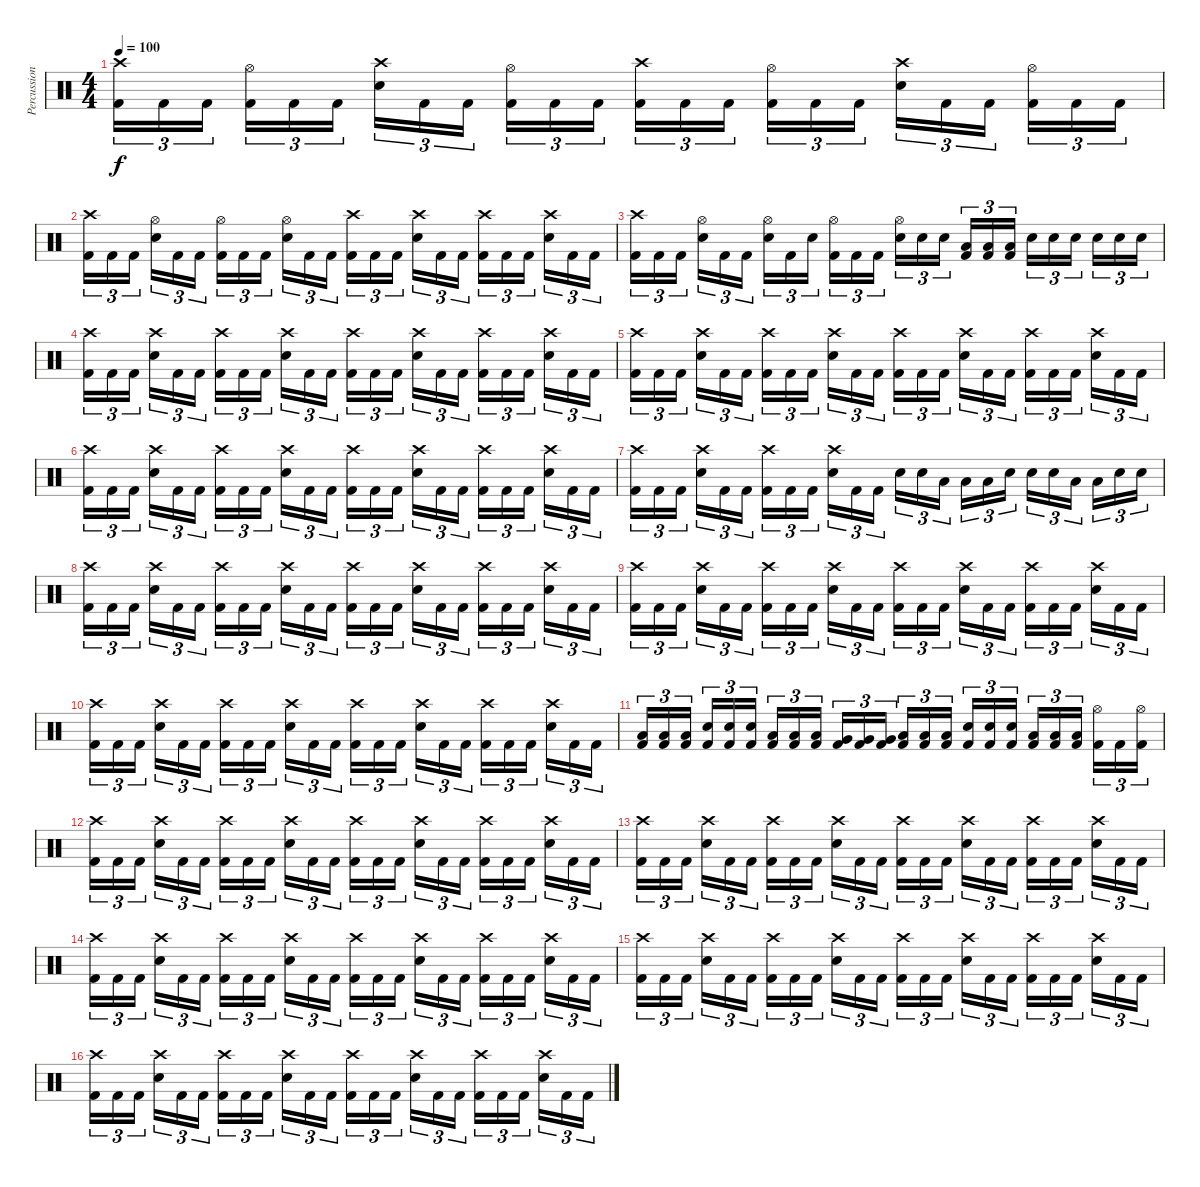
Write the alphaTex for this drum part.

\track ("Percussion" "Percussion") {instrument percussion}
\staff {score}
\articulation defaults
\ts (4 4)
\tempo 100
\clef neutral
\ks c
("Crash high (hit)" "Kick (hit) 2").16{tu (3 2) dy f} "Kick (hit) 2".16{tu (3 2)} "Kick (hit) 2".16{tu (3 2)} ("Hi-Hat (open)" "Kick (hit) 2").16{tu (3 2)} "Kick (hit) 2".16{tu (3 2)} "Kick (hit) 2".16{tu (3 2)} ("Crash high (hit)" "Electric Snare (hit)").16{tu (3 2)} "Kick (hit) 2".16{tu (3 2)} "Kick (hit) 2".16{tu (3 2)} ("Hi-Hat (open)" "Kick (hit) 2").16{tu (3 2)} "Kick (hit) 2".16{tu (3 2)} "Kick (hit) 2".16{tu (3 2)} ("Crash high (hit)" "Kick (hit) 2").16{tu (3 2)} "Kick (hit) 2".16{tu (3 2)} "Kick (hit) 2".16{tu (3 2)} ("Hi-Hat (open)" "Kick (hit) 2").16{tu (3 2)} "Kick (hit) 2".16{tu (3 2)} "Kick (hit) 2".16{tu (3 2)} ("Crash high (hit)" "Electric Snare (hit)").16{tu (3 2)} "Kick (hit) 2".16{tu (3 2)} "Kick (hit) 2".16{tu (3 2)} ("Hi-Hat (open)" "Kick (hit) 2").16{tu (3 2)} "Kick (hit) 2".16{tu (3 2)} "Kick (hit) 2".16{tu (3 2)} |
("Crash high (hit)" "Kick (hit) 2").16{tu (3 2)} "Kick (hit) 2".16{tu (3 2)} "Kick (hit) 2".16{tu (3 2)} ("Hi-Hat (open)" "Electric Snare (hit)").16{tu (3 2)} "Kick (hit) 2".16{tu (3 2)} "Kick (hit) 2".16{tu (3 2)} ("Hi-Hat (open)" "Kick (hit) 2").16{tu (3 2)} "Kick (hit) 2".16{tu (3 2)} "Kick (hit) 2".16{tu (3 2)} ("Hi-Hat (open)" "Electric Snare (hit)").16{tu (3 2)} "Kick (hit) 2".16{tu (3 2)} "Kick (hit) 2".16{tu (3 2)} ("Crash high (hit)" "Kick (hit) 2").16{tu (3 2)} "Kick (hit) 2".16{tu (3 2)} "Kick (hit) 2".16{tu (3 2)} ("Crash high (hit)" "Electric Snare (hit)").16{tu (3 2)} "Kick (hit) 2".16{tu (3 2)} "Kick (hit) 2".16{tu (3 2)} ("Crash high (hit)" "Kick (hit) 2").16{tu (3 2)} "Kick (hit) 2".16{tu (3 2)} "Kick (hit) 2".16{tu (3 2)} ("Crash high (hit)" "Electric Snare (hit)").16{tu (3 2)} "Kick (hit) 2".16{tu (3 2)} "Kick (hit) 2".16{tu (3 2)} |
("Crash high (hit)" "Kick (hit) 2").16{tu (3 2)} "Kick (hit) 2".16{tu (3 2)} "Kick (hit) 2".16{tu (3 2)} ("Hi-Hat (open)" "Electric Snare (hit)").16{tu (3 2)} "Kick (hit) 2".16{tu (3 2)} "Kick (hit) 2".16{tu (3 2)} ("Hi-Hat (open)" "Electric Snare (hit)").16{tu (3 2)} "Kick (hit) 2".16{tu (3 2)} "Electric Snare (hit)".16{tu (3 2)} ("Hi-Hat (open)" "Kick (hit) 2").16{tu (3 2)} "Kick (hit) 2".16{tu (3 2)} "Kick (hit) 2".16{tu (3 2)} ("Hi-Hat (open)" "Electric Snare (hit)").16{tu (3 2)} "Electric Snare (hit)".16{tu (3 2)} "Electric Snare (hit)".16{tu (3 2)} ("Low Tom (hit)" "Kick (hit) 2").16{tu (3 2)} ("Low Tom (hit)" "Kick (hit) 2").16{tu (3 2)} ("Low Tom (hit)" "Kick (hit) 2").16{tu (3 2)} "Electric Snare (hit)".16{tu (3 2)} "Electric Snare (hit)".16{tu (3 2)} "Electric Snare (hit)".16{tu (3 2)} "Electric Snare (hit)".16{tu (3 2)} "Electric Snare (hit)".16{tu (3 2)} "Electric Snare (hit)".16{tu (3 2)} |
("Crash high (hit)" "Kick (hit) 2").16{tu (3 2)} "Kick (hit) 2".16{tu (3 2)} "Kick (hit) 2".16{tu (3 2)} ("Crash high (hit)" "Electric Snare (hit)").16{tu (3 2)} "Kick (hit) 2".16{tu (3 2)} "Kick (hit) 2".16{tu (3 2)} ("Crash high (hit)" "Kick (hit) 2").16{tu (3 2)} "Kick (hit) 2".16{tu (3 2)} "Kick (hit) 2".16{tu (3 2)} ("Crash high (hit)" "Electric Snare (hit)").16{tu (3 2)} "Kick (hit) 2".16{tu (3 2)} "Kick (hit) 2".16{tu (3 2)} ("Crash high (hit)" "Kick (hit) 2").16{tu (3 2)} "Kick (hit) 2".16{tu (3 2)} "Kick (hit) 2".16{tu (3 2)} ("Crash high (hit)" "Electric Snare (hit)").16{tu (3 2)} "Kick (hit) 2".16{tu (3 2)} "Kick (hit) 2".16{tu (3 2)} ("Crash high (hit)" "Kick (hit) 2").16{tu (3 2)} "Kick (hit) 2".16{tu (3 2)} "Kick (hit) 2".16{tu (3 2)} ("Crash high (hit)" "Electric Snare (hit)").16{tu (3 2)} "Kick (hit) 2".16{tu (3 2)} "Kick (hit) 2".16{tu (3 2)} |
("Crash high (hit)" "Kick (hit) 2").16{tu (3 2)} "Kick (hit) 2".16{tu (3 2)} "Kick (hit) 2".16{tu (3 2)} ("Crash high (hit)" "Electric Snare (hit)").16{tu (3 2)} "Kick (hit) 2".16{tu (3 2)} "Kick (hit) 2".16{tu (3 2)} ("Crash high (hit)" "Kick (hit) 2").16{tu (3 2)} "Kick (hit) 2".16{tu (3 2)} "Kick (hit) 2".16{tu (3 2)} ("Crash high (hit)" "Electric Snare (hit)").16{tu (3 2)} "Kick (hit) 2".16{tu (3 2)} "Kick (hit) 2".16{tu (3 2)} ("Crash high (hit)" "Kick (hit) 2").16{tu (3 2)} "Kick (hit) 2".16{tu (3 2)} "Kick (hit) 2".16{tu (3 2)} ("Crash high (hit)" "Electric Snare (hit)").16{tu (3 2)} "Kick (hit) 2".16{tu (3 2)} "Kick (hit) 2".16{tu (3 2)} ("Crash high (hit)" "Kick (hit) 2").16{tu (3 2)} "Kick (hit) 2".16{tu (3 2)} "Kick (hit) 2".16{tu (3 2)} ("Crash high (hit)" "Electric Snare (hit)").16{tu (3 2)} "Kick (hit) 2".16{tu (3 2)} "Kick (hit) 2".16{tu (3 2)} |
("Crash high (hit)" "Kick (hit) 2").16{tu (3 2)} "Kick (hit) 2".16{tu (3 2)} "Kick (hit) 2".16{tu (3 2)} ("Crash high (hit)" "Electric Snare (hit)").16{tu (3 2)} "Kick (hit) 2".16{tu (3 2)} "Kick (hit) 2".16{tu (3 2)} ("Crash high (hit)" "Kick (hit) 2").16{tu (3 2)} "Kick (hit) 2".16{tu (3 2)} "Kick (hit) 2".16{tu (3 2)} ("Crash high (hit)" "Electric Snare (hit)").16{tu (3 2)} "Kick (hit) 2".16{tu (3 2)} "Kick (hit) 2".16{tu (3 2)} ("Crash high (hit)" "Kick (hit) 2").16{tu (3 2)} "Kick (hit) 2".16{tu (3 2)} "Kick (hit) 2".16{tu (3 2)} ("Crash high (hit)" "Electric Snare (hit)").16{tu (3 2)} "Kick (hit) 2".16{tu (3 2)} "Kick (hit) 2".16{tu (3 2)} ("Crash high (hit)" "Kick (hit) 2").16{tu (3 2)} "Kick (hit) 2".16{tu (3 2)} "Kick (hit) 2".16{tu (3 2)} ("Crash high (hit)" "Electric Snare (hit)").16{tu (3 2)} "Kick (hit) 2".16{tu (3 2)} "Kick (hit) 2".16{tu (3 2)} |
("Crash high (hit)" "Kick (hit) 2").16{tu (3 2)} "Kick (hit) 2".16{tu (3 2)} "Kick (hit) 2".16{tu (3 2)} ("Crash high (hit)" "Electric Snare (hit)").16{tu (3 2)} "Kick (hit) 2".16{tu (3 2)} "Kick (hit) 2".16{tu (3 2)} ("Crash high (hit)" "Kick (hit) 2").16{tu (3 2)} "Kick (hit) 2".16{tu (3 2)} "Kick (hit) 2".16{tu (3 2)} ("Crash high (hit)" "Electric Snare (hit)").16{tu (3 2)} "Kick (hit) 2".16{tu (3 2)} "Kick (hit) 2".16{tu (3 2)} "Electric Snare (hit)".16{tu (3 2)} "Electric Snare (hit)".16{tu (3 2)} "Low Tom (hit)".16{tu (3 2)} "Low Tom (hit)".16{tu (3 2)} "Low Tom (hit)".16{tu (3 2)} "Electric Snare (hit)".16{tu (3 2)} "Electric Snare (hit)".16{tu (3 2)} "Electric Snare (hit)".16{tu (3 2)} "Low Tom (hit)".16{tu (3 2)} "Low Tom (hit)".16{tu (3 2)} "Electric Snare (hit)".16{tu (3 2)} "Electric Snare (hit)".16{tu (3 2)} |
("Crash high (hit)" "Kick (hit) 2").16{tu (3 2)} "Kick (hit) 2".16{tu (3 2)} "Kick (hit) 2".16{tu (3 2)} ("Crash high (hit)" "Electric Snare (hit)").16{tu (3 2)} "Kick (hit) 2".16{tu (3 2)} "Kick (hit) 2".16{tu (3 2)} ("Crash high (hit)" "Kick (hit) 2").16{tu (3 2)} "Kick (hit) 2".16{tu (3 2)} "Kick (hit) 2".16{tu (3 2)} ("Crash high (hit)" "Electric Snare (hit)").16{tu (3 2)} "Kick (hit) 2".16{tu (3 2)} "Kick (hit) 2".16{tu (3 2)} ("Crash high (hit)" "Kick (hit) 2").16{tu (3 2)} "Kick (hit) 2".16{tu (3 2)} "Kick (hit) 2".16{tu (3 2)} ("Crash high (hit)" "Electric Snare (hit)").16{tu (3 2)} "Kick (hit) 2".16{tu (3 2)} "Kick (hit) 2".16{tu (3 2)} ("Crash high (hit)" "Kick (hit) 2").16{tu (3 2)} "Kick (hit) 2".16{tu (3 2)} "Kick (hit) 2".16{tu (3 2)} ("Crash high (hit)" "Electric Snare (hit)").16{tu (3 2)} "Kick (hit) 2".16{tu (3 2)} "Kick (hit) 2".16{tu (3 2)} |
("Crash high (hit)" "Kick (hit) 2").16{tu (3 2)} "Kick (hit) 2".16{tu (3 2)} "Kick (hit) 2".16{tu (3 2)} ("Crash high (hit)" "Electric Snare (hit)").16{tu (3 2)} "Kick (hit) 2".16{tu (3 2)} "Kick (hit) 2".16{tu (3 2)} ("Crash high (hit)" "Kick (hit) 2").16{tu (3 2)} "Kick (hit) 2".16{tu (3 2)} "Kick (hit) 2".16{tu (3 2)} ("Crash high (hit)" "Electric Snare (hit)").16{tu (3 2)} "Kick (hit) 2".16{tu (3 2)} "Kick (hit) 2".16{tu (3 2)} ("Crash high (hit)" "Kick (hit) 2").16{tu (3 2)} "Kick (hit) 2".16{tu (3 2)} "Kick (hit) 2".16{tu (3 2)} ("Crash high (hit)" "Electric Snare (hit)").16{tu (3 2)} "Kick (hit) 2".16{tu (3 2)} "Kick (hit) 2".16{tu (3 2)} ("Crash high (hit)" "Kick (hit) 2").16{tu (3 2)} "Kick (hit) 2".16{tu (3 2)} "Kick (hit) 2".16{tu (3 2)} ("Crash high (hit)" "Electric Snare (hit)").16{tu (3 2)} "Kick (hit) 2".16{tu (3 2)} "Kick (hit) 2".16{tu (3 2)} |
("Crash high (hit)" "Kick (hit) 2").16{tu (3 2)} "Kick (hit) 2".16{tu (3 2)} "Kick (hit) 2".16{tu (3 2)} ("Crash high (hit)" "Electric Snare (hit)").16{tu (3 2)} "Kick (hit) 2".16{tu (3 2)} "Kick (hit) 2".16{tu (3 2)} ("Crash high (hit)" "Kick (hit) 2").16{tu (3 2)} "Kick (hit) 2".16{tu (3 2)} "Kick (hit) 2".16{tu (3 2)} ("Crash high (hit)" "Electric Snare (hit)").16{tu (3 2)} "Kick (hit) 2".16{tu (3 2)} "Kick (hit) 2".16{tu (3 2)} ("Crash high (hit)" "Kick (hit) 2").16{tu (3 2)} "Kick (hit) 2".16{tu (3 2)} "Kick (hit) 2".16{tu (3 2)} ("Crash high (hit)" "Electric Snare (hit)").16{tu (3 2)} "Kick (hit) 2".16{tu (3 2)} "Kick (hit) 2".16{tu (3 2)} ("Crash high (hit)" "Kick (hit) 2").16{tu (3 2)} "Kick (hit) 2".16{tu (3 2)} "Kick (hit) 2".16{tu (3 2)} ("Crash high (hit)" "Electric Snare (hit)").16{tu (3 2)} "Kick (hit) 2".16{tu (3 2)} "Kick (hit) 2".16{tu (3 2)} |
("Low Tom (hit)" "Kick (hit) 2").16{tu (3 2)} ("Low Tom (hit)" "Kick (hit) 2").16{tu (3 2)} ("Low Tom (hit)" "Kick (hit) 2").16{tu (3 2)} ("Electric Snare (hit)" "Kick (hit) 2").16{tu (3 2)} ("Electric Snare (hit)" "Kick (hit) 2").16{tu (3 2)} ("Electric Snare (hit)" "Kick (hit) 2").16{tu (3 2)} ("Low Tom (hit)" "Kick (hit) 2").16{tu (3 2)} ("Low Tom (hit)" "Kick (hit) 2").16{tu (3 2)} ("Low Tom (hit)" "Kick (hit) 2").16{tu (3 2)} ("Very Low Tom (hit)" "Kick (hit) 2").16{tu (3 2)} ("Very Low Tom (hit)" "Kick (hit) 2").16{tu (3 2)} ("Very Low Tom (hit)" "Kick (hit) 2").16{tu (3 2)} ("Low Tom (hit)" "Kick (hit) 2").16{tu (3 2)} ("Low Tom (hit)" "Kick (hit) 2").16{tu (3 2)} ("Low Tom (hit)" "Kick (hit) 2").16{tu (3 2)} ("Electric Snare (hit)" "Kick (hit) 2").16{tu (3 2)} ("Electric Snare (hit)" "Kick (hit) 2").16{tu (3 2)} ("Electric Snare (hit)" "Kick (hit) 2").16{tu (3 2)} ("Low Tom (hit)" "Kick (hit) 2").16{tu (3 2)} ("Low Tom (hit)" "Kick (hit) 2").16{tu (3 2)} ("Low Tom (hit)" "Kick (hit) 2").16{tu (3 2)} ("Hi-Hat (open)" "Kick (hit) 2").16{tu (3 2)} "Kick (hit) 2".16{tu (3 2)} ("Hi-Hat (open)" "Kick (hit) 2").16{tu (3 2)} |
("Crash high (hit)" "Kick (hit) 2").16{tu (3 2)} "Kick (hit) 2".16{tu (3 2)} "Kick (hit) 2".16{tu (3 2)} ("Crash high (hit)" "Electric Snare (hit)").16{tu (3 2)} "Kick (hit) 2".16{tu (3 2)} "Kick (hit) 2".16{tu (3 2)} ("Crash high (hit)" "Kick (hit) 2").16{tu (3 2)} "Kick (hit) 2".16{tu (3 2)} "Kick (hit) 2".16{tu (3 2)} ("Crash high (hit)" "Electric Snare (hit)").16{tu (3 2)} "Kick (hit) 2".16{tu (3 2)} "Kick (hit) 2".16{tu (3 2)} ("Crash high (hit)" "Kick (hit) 2").16{tu (3 2)} "Kick (hit) 2".16{tu (3 2)} "Kick (hit) 2".16{tu (3 2)} ("Crash high (hit)" "Electric Snare (hit)").16{tu (3 2)} "Kick (hit) 2".16{tu (3 2)} "Kick (hit) 2".16{tu (3 2)} ("Crash high (hit)" "Kick (hit) 2").16{tu (3 2)} "Kick (hit) 2".16{tu (3 2)} "Kick (hit) 2".16{tu (3 2)} ("Crash high (hit)" "Electric Snare (hit)").16{tu (3 2)} "Kick (hit) 2".16{tu (3 2)} "Kick (hit) 2".16{tu (3 2)} |
("Crash high (hit)" "Kick (hit) 2").16{tu (3 2)} "Kick (hit) 2".16{tu (3 2)} "Kick (hit) 2".16{tu (3 2)} ("Crash high (hit)" "Electric Snare (hit)").16{tu (3 2)} "Kick (hit) 2".16{tu (3 2)} "Kick (hit) 2".16{tu (3 2)} ("Crash high (hit)" "Kick (hit) 2").16{tu (3 2)} "Kick (hit) 2".16{tu (3 2)} "Kick (hit) 2".16{tu (3 2)} ("Crash high (hit)" "Electric Snare (hit)").16{tu (3 2)} "Kick (hit) 2".16{tu (3 2)} "Kick (hit) 2".16{tu (3 2)} ("Crash high (hit)" "Kick (hit) 2").16{tu (3 2)} "Kick (hit) 2".16{tu (3 2)} "Kick (hit) 2".16{tu (3 2)} ("Crash high (hit)" "Electric Snare (hit)").16{tu (3 2)} "Kick (hit) 2".16{tu (3 2)} "Kick (hit) 2".16{tu (3 2)} ("Crash high (hit)" "Kick (hit) 2").16{tu (3 2)} "Kick (hit) 2".16{tu (3 2)} "Kick (hit) 2".16{tu (3 2)} ("Crash high (hit)" "Electric Snare (hit)").16{tu (3 2)} "Kick (hit) 2".16{tu (3 2)} "Kick (hit) 2".16{tu (3 2)} |
("Crash high (hit)" "Kick (hit) 2").16{tu (3 2)} "Kick (hit) 2".16{tu (3 2)} "Kick (hit) 2".16{tu (3 2)} ("Crash high (hit)" "Electric Snare (hit)").16{tu (3 2)} "Kick (hit) 2".16{tu (3 2)} "Kick (hit) 2".16{tu (3 2)} ("Crash high (hit)" "Kick (hit) 2").16{tu (3 2)} "Kick (hit) 2".16{tu (3 2)} "Kick (hit) 2".16{tu (3 2)} ("Crash high (hit)" "Electric Snare (hit)").16{tu (3 2)} "Kick (hit) 2".16{tu (3 2)} "Kick (hit) 2".16{tu (3 2)} ("Crash high (hit)" "Kick (hit) 2").16{tu (3 2)} "Kick (hit) 2".16{tu (3 2)} "Kick (hit) 2".16{tu (3 2)} ("Crash high (hit)" "Electric Snare (hit)").16{tu (3 2)} "Kick (hit) 2".16{tu (3 2)} "Kick (hit) 2".16{tu (3 2)} ("Crash high (hit)" "Kick (hit) 2").16{tu (3 2)} "Kick (hit) 2".16{tu (3 2)} "Kick (hit) 2".16{tu (3 2)} ("Crash high (hit)" "Electric Snare (hit)").16{tu (3 2)} "Kick (hit) 2".16{tu (3 2)} "Kick (hit) 2".16{tu (3 2)} |
("Crash high (hit)" "Kick (hit) 2").16{tu (3 2)} "Kick (hit) 2".16{tu (3 2)} "Kick (hit) 2".16{tu (3 2)} ("Crash high (hit)" "Electric Snare (hit)").16{tu (3 2)} "Kick (hit) 2".16{tu (3 2)} "Kick (hit) 2".16{tu (3 2)} ("Crash high (hit)" "Kick (hit) 2").16{tu (3 2)} "Kick (hit) 2".16{tu (3 2)} "Kick (hit) 2".16{tu (3 2)} ("Crash high (hit)" "Electric Snare (hit)").16{tu (3 2)} "Kick (hit) 2".16{tu (3 2)} "Kick (hit) 2".16{tu (3 2)} ("Crash high (hit)" "Kick (hit) 2").16{tu (3 2)} "Kick (hit) 2".16{tu (3 2)} "Kick (hit) 2".16{tu (3 2)} ("Crash high (hit)" "Electric Snare (hit)").16{tu (3 2)} "Kick (hit) 2".16{tu (3 2)} "Kick (hit) 2".16{tu (3 2)} ("Crash high (hit)" "Kick (hit) 2").16{tu (3 2)} "Kick (hit) 2".16{tu (3 2)} "Kick (hit) 2".16{tu (3 2)} ("Crash high (hit)" "Electric Snare (hit)").16{tu (3 2)} "Kick (hit) 2".16{tu (3 2)} "Kick (hit) 2".16{tu (3 2)} |
("Crash high (hit)" "Kick (hit) 2").16{tu (3 2)} "Kick (hit) 2".16{tu (3 2)} "Kick (hit) 2".16{tu (3 2)} ("Crash high (hit)" "Electric Snare (hit)").16{tu (3 2)} "Kick (hit) 2".16{tu (3 2)} "Kick (hit) 2".16{tu (3 2)} ("Crash high (hit)" "Kick (hit) 2").16{tu (3 2)} "Kick (hit) 2".16{tu (3 2)} "Kick (hit) 2".16{tu (3 2)} ("Crash high (hit)" "Electric Snare (hit)").16{tu (3 2)} "Kick (hit) 2".16{tu (3 2)} "Kick (hit) 2".16{tu (3 2)} ("Crash high (hit)" "Kick (hit) 2").16{tu (3 2)} "Kick (hit) 2".16{tu (3 2)} "Kick (hit) 2".16{tu (3 2)} ("Crash high (hit)" "Electric Snare (hit)").16{tu (3 2)} "Kick (hit) 2".16{tu (3 2)} "Kick (hit) 2".16{tu (3 2)} ("Crash high (hit)" "Kick (hit) 2").16{tu (3 2)} "Kick (hit) 2".16{tu (3 2)} "Kick (hit) 2".16{tu (3 2)} ("Crash high (hit)" "Electric Snare (hit)").16{tu (3 2)} "Kick (hit) 2".16{tu (3 2)} "Kick (hit) 2".16{tu (3 2)}
